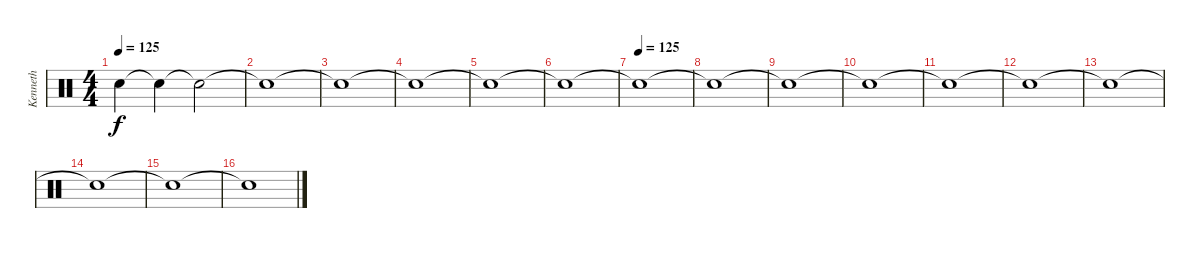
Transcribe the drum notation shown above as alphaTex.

\track ("Kenneth" "Kenneth") {instrument percussion}
\staff {score}
\articulation defaults
\ts (4 4)
\tempo 125
\clef neutral
\ks c "Snare (hit)"{t}.4{dy f} "Snare (hit)"{t}.4 "Snare (hit)"{t}.2
|
"Snare (hit)"{t}.1 |
"Snare (hit)"{t}.1 |
"Snare (hit)"{t}.1 |
"Snare (hit)"{t}.1 |
"Snare (hit)"{t}.1 |
\tempo (125)
"Snare (hit)"{t}.1 |
"Snare (hit)"{t}.1 |
"Snare (hit)"{t}.1 |
"Snare (hit)"{t}.1 |
"Snare (hit)"{t}.1 |
"Snare (hit)"{t}.1 |
"Snare (hit)"{t}.1 |
"Snare (hit)"{t}.1 |
"Snare (hit)"{t}.1 |
"Snare (hit)"{t}.1
